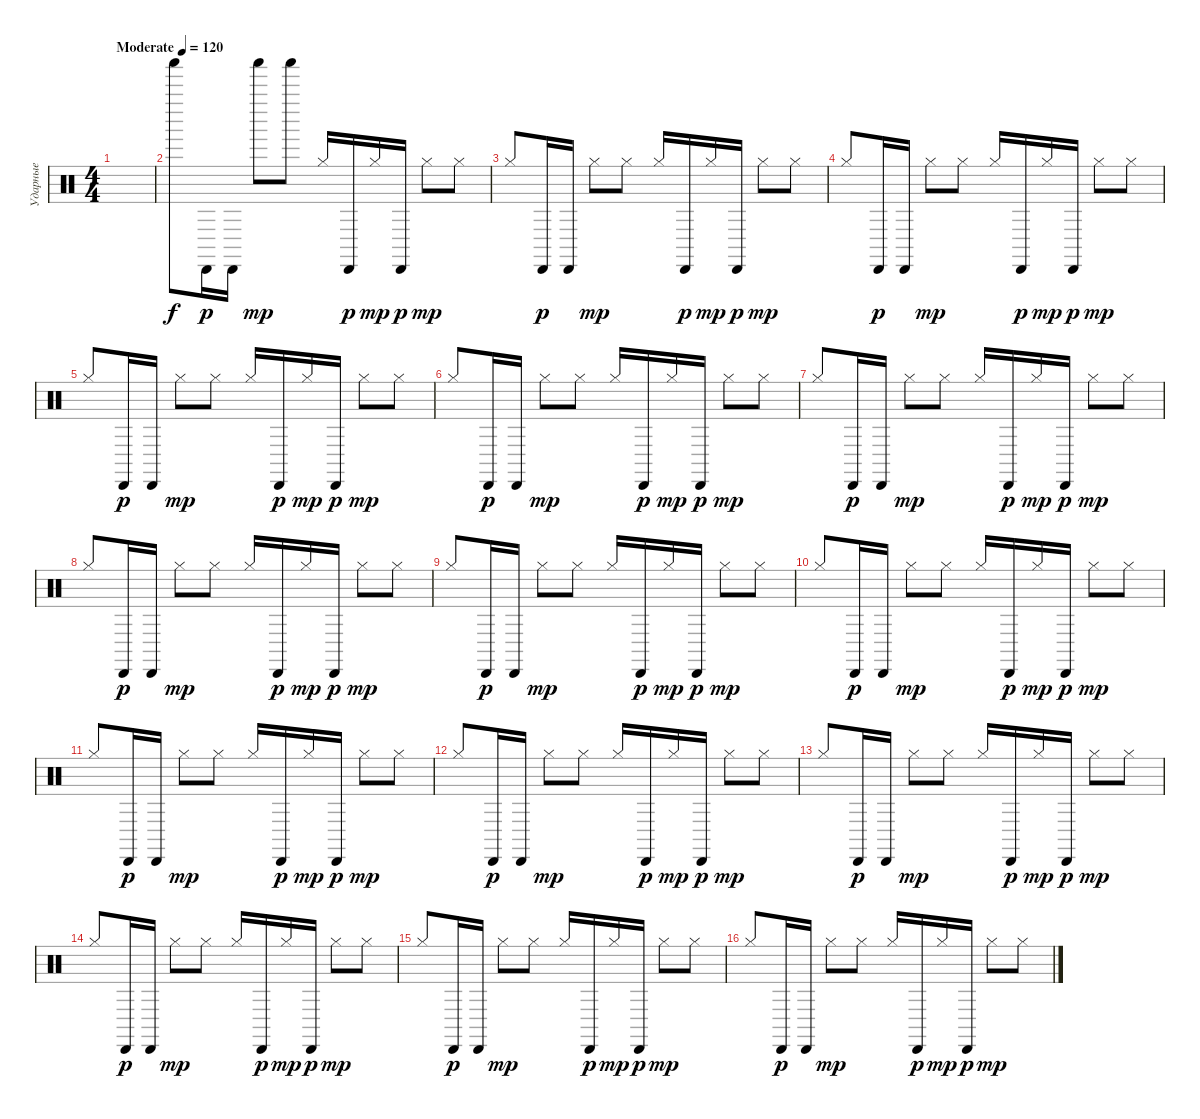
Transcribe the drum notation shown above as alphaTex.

\track ("Ударные" "Ударные") {instrument percussion}
\staff {score}
\articulation defaults
\ts (4 4)
\tempo (120 "Moderate")
\clef neutral
\ks c
|
"Shaker (hit)".8 "Cabasa (hit)".16{dy p} "Cabasa (hit)".16 "Shaker (hit)".8{dy mp} "Shaker (hit)".8 "Hi-Hat (closed)".16 "Cabasa (hit)".16{dy p} "Hi-Hat (closed)".16{dy mp} "Cabasa (hit)".16{dy p} "Hi-Hat (closed)".8{dy mp} "Hi-Hat (closed)".8 |
"Hi-Hat (closed)".8 "Cabasa (hit)".16{dy p} "Cabasa (hit)".16 "Hi-Hat (closed)".8{dy mp} "Hi-Hat (closed)".8 "Hi-Hat (closed)".16 "Cabasa (hit)".16{dy p} "Hi-Hat (closed)".16{dy mp} "Cabasa (hit)".16{dy p} "Hi-Hat (closed)".8{dy mp} "Hi-Hat (closed)".8 |
"Hi-Hat (closed)".8 "Cabasa (hit)".16{dy p} "Cabasa (hit)".16 "Hi-Hat (closed)".8{dy mp} "Hi-Hat (closed)".8 "Hi-Hat (closed)".16 "Cabasa (hit)".16{dy p} "Hi-Hat (closed)".16{dy mp} "Cabasa (hit)".16{dy p} "Hi-Hat (closed)".8{dy mp} "Hi-Hat (closed)".8 |
"Hi-Hat (closed)".8 "Cabasa (hit)".16{dy p} "Cabasa (hit)".16 "Hi-Hat (closed)".8{dy mp} "Hi-Hat (closed)".8 "Hi-Hat (closed)".16 "Cabasa (hit)".16{dy p} "Hi-Hat (closed)".16{dy mp} "Cabasa (hit)".16{dy p} "Hi-Hat (closed)".8{dy mp} "Hi-Hat (closed)".8 |
"Hi-Hat (closed)".8 "Cabasa (hit)".16{dy p} "Cabasa (hit)".16 "Hi-Hat (closed)".8{dy mp} "Hi-Hat (closed)".8 "Hi-Hat (closed)".16 "Cabasa (hit)".16{dy p} "Hi-Hat (closed)".16{dy mp} "Cabasa (hit)".16{dy p} "Hi-Hat (closed)".8{dy mp} "Hi-Hat (closed)".8 |
"Hi-Hat (closed)".8 "Cabasa (hit)".16{dy p} "Cabasa (hit)".16 "Hi-Hat (closed)".8{dy mp} "Hi-Hat (closed)".8 "Hi-Hat (closed)".16 "Cabasa (hit)".16{dy p} "Hi-Hat (closed)".16{dy mp} "Cabasa (hit)".16{dy p} "Hi-Hat (closed)".8{dy mp} "Hi-Hat (closed)".8 |
"Hi-Hat (closed)".8 "Cabasa (hit)".16{dy p} "Cabasa (hit)".16 "Hi-Hat (closed)".8{dy mp} "Hi-Hat (closed)".8 "Hi-Hat (closed)".16 "Cabasa (hit)".16{dy p} "Hi-Hat (closed)".16{dy mp} "Cabasa (hit)".16{dy p} "Hi-Hat (closed)".8{dy mp} "Hi-Hat (closed)".8 |
"Hi-Hat (closed)".8 "Cabasa (hit)".16{dy p} "Cabasa (hit)".16 "Hi-Hat (closed)".8{dy mp} "Hi-Hat (closed)".8 "Hi-Hat (closed)".16 "Cabasa (hit)".16{dy p} "Hi-Hat (closed)".16{dy mp} "Cabasa (hit)".16{dy p} "Hi-Hat (closed)".8{dy mp} "Hi-Hat (closed)".8 |
"Hi-Hat (closed)".8 "Cabasa (hit)".16{dy p} "Cabasa (hit)".16 "Hi-Hat (closed)".8{dy mp} "Hi-Hat (closed)".8 "Hi-Hat (closed)".16 "Cabasa (hit)".16{dy p} "Hi-Hat (closed)".16{dy mp} "Cabasa (hit)".16{dy p} "Hi-Hat (closed)".8{dy mp} "Hi-Hat (closed)".8 |
"Hi-Hat (closed)".8 "Cabasa (hit)".16{dy p} "Cabasa (hit)".16 "Hi-Hat (closed)".8{dy mp} "Hi-Hat (closed)".8 "Hi-Hat (closed)".16 "Cabasa (hit)".16{dy p} "Hi-Hat (closed)".16{dy mp} "Cabasa (hit)".16{dy p} "Hi-Hat (closed)".8{dy mp} "Hi-Hat (closed)".8 |
"Hi-Hat (closed)".8 "Cabasa (hit)".16{dy p} "Cabasa (hit)".16 "Hi-Hat (closed)".8{dy mp} "Hi-Hat (closed)".8 "Hi-Hat (closed)".16 "Cabasa (hit)".16{dy p} "Hi-Hat (closed)".16{dy mp} "Cabasa (hit)".16{dy p} "Hi-Hat (closed)".8{dy mp} "Hi-Hat (closed)".8 |
"Hi-Hat (closed)".8 "Cabasa (hit)".16{dy p} "Cabasa (hit)".16 "Hi-Hat (closed)".8{dy mp} "Hi-Hat (closed)".8 "Hi-Hat (closed)".16 "Cabasa (hit)".16{dy p} "Hi-Hat (closed)".16{dy mp} "Cabasa (hit)".16{dy p} "Hi-Hat (closed)".8{dy mp} "Hi-Hat (closed)".8 |
"Hi-Hat (closed)".8 "Cabasa (hit)".16{dy p} "Cabasa (hit)".16 "Hi-Hat (closed)".8{dy mp} "Hi-Hat (closed)".8 "Hi-Hat (closed)".16 "Cabasa (hit)".16{dy p} "Hi-Hat (closed)".16{dy mp} "Cabasa (hit)".16{dy p} "Hi-Hat (closed)".8{dy mp} "Hi-Hat (closed)".8 |
"Hi-Hat (closed)".8 "Cabasa (hit)".16{dy p} "Cabasa (hit)".16 "Hi-Hat (closed)".8{dy mp} "Hi-Hat (closed)".8 "Hi-Hat (closed)".16 "Cabasa (hit)".16{dy p} "Hi-Hat (closed)".16{dy mp} "Cabasa (hit)".16{dy p} "Hi-Hat (closed)".8{dy mp} "Hi-Hat (closed)".8 |
"Hi-Hat (closed)".8 "Cabasa (hit)".16{dy p} "Cabasa (hit)".16 "Hi-Hat (closed)".8{dy mp} "Hi-Hat (closed)".8 "Hi-Hat (closed)".16 "Cabasa (hit)".16{dy p} "Hi-Hat (closed)".16{dy mp} "Cabasa (hit)".16{dy p} "Hi-Hat (closed)".8{dy mp} "Hi-Hat (closed)".8
